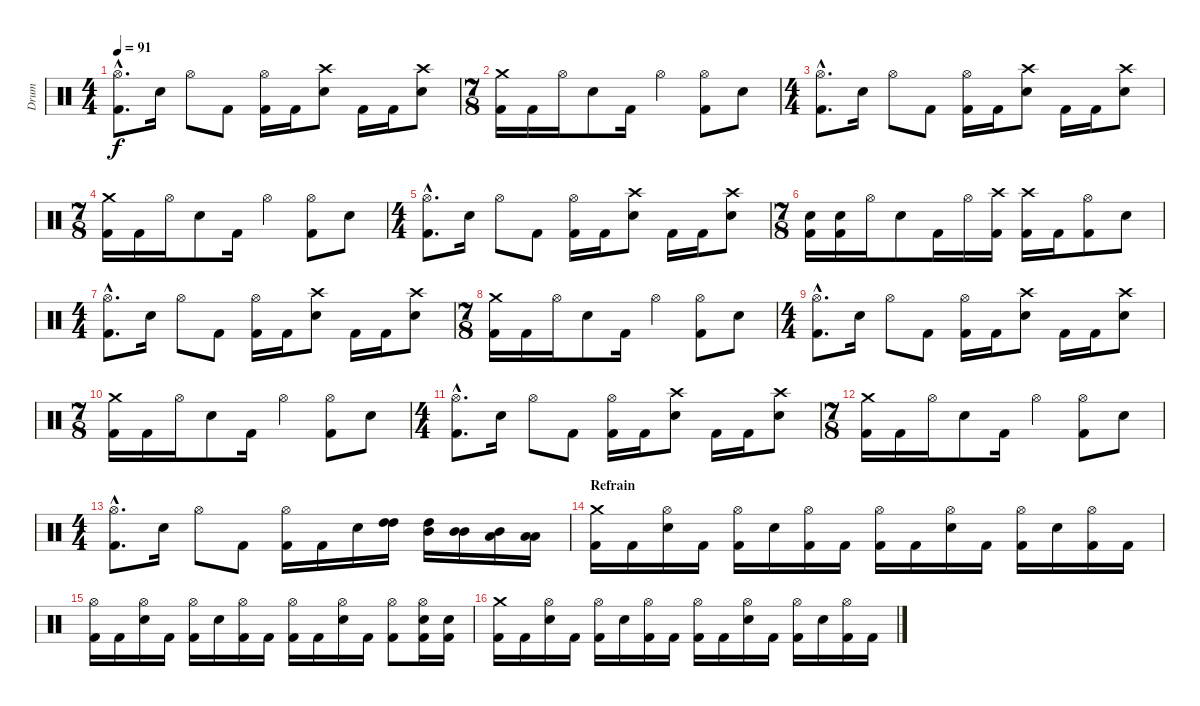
\track ("Drum" "Drum") {instrument percussion}
\staff {score}
\articulation defaults
\ts (4 4)
\tempo 91
\clef neutral
\ks c
("Hi-Hat (open)"{hac} "Kick (hit) 2"{hac}).8{d dy f} "Snare (hit) 2".16 "Hi-Hat (open)".8 "Kick (hit) 2".8 ("Hi-Hat (open)" "Kick (hit) 2").16 "Kick (hit) 2".16 ("Crash high (hit)" "Snare (hit) 2").8 "Kick (hit) 2".16 "Kick (hit) 2".16 ("Crash high (hit)" "Snare (hit) 2").8 |
\ts (7 8)
("Crash medium (hit)" "Kick (hit) 2").16 "Kick (hit) 2".16 "Hi-Hat (open)".16 "Snare (hit) 2".8 "Kick (hit) 2".16 "Hi-Hat (open)".4 ("Hi-Hat (open)" "Kick (hit) 2").8 "Snare (hit) 2".8 |
\ts (4 4)
("Hi-Hat (open)"{hac} "Kick (hit) 2"{hac}).8{d} "Snare (hit) 2".16 "Hi-Hat (open)".8 "Kick (hit) 2".8 ("Hi-Hat (open)" "Kick (hit) 2").16 "Kick (hit) 2".16 ("Crash high (hit)" "Snare (hit) 2").8 "Kick (hit) 2".16 "Kick (hit) 2".16 ("Crash high (hit)" "Snare (hit) 2").8 |
\ts (7 8)
("Crash medium (hit)" "Kick (hit) 2").16 "Kick (hit) 2".16 "Hi-Hat (open)".16 "Snare (hit) 2".8 "Kick (hit) 2".16 "Hi-Hat (open)".4 ("Hi-Hat (open)" "Kick (hit) 2").8 "Snare (hit) 2".8 |
\ts (4 4)
("Hi-Hat (open)"{hac} "Kick (hit) 2"{hac}).8{d} "Snare (hit) 2".16 "Hi-Hat (open)".8 "Kick (hit) 2".8 ("Hi-Hat (open)" "Kick (hit) 2").16 "Kick (hit) 2".16 ("Crash high (hit)" "Snare (hit) 2").8 "Kick (hit) 2".16 "Kick (hit) 2".16 ("Crash high (hit)" "Snare (hit) 2").8 |
\ts (7 8)
("Snare (hit) 2" "Kick (hit) 2").16 ("Snare (hit) 2" "Kick (hit) 2").16 "Hi-Hat (open)".16 "Snare (hit) 2".8 "Kick (hit) 2".16 "Hi-Hat (open)".16 ("Crash high (hit)" "Kick (hit) 2").16 ("Crash high (hit)" "Kick (hit) 2").16 "Kick (hit) 2".16 ("Hi-Hat (open)" "Kick (hit) 2").8 "Snare (hit) 2".8 |
\ts (4 4)
("Hi-Hat (open)"{hac} "Kick (hit) 2"{hac}).8{d} "Snare (hit) 2".16 "Hi-Hat (open)".8 "Kick (hit) 2".8 ("Hi-Hat (open)" "Kick (hit) 2").16 "Kick (hit) 2".16 ("Crash high (hit)" "Snare (hit) 2").8 "Kick (hit) 2".16 "Kick (hit) 2".16 ("Crash high (hit)" "Snare (hit) 2").8 |
\ts (7 8)
("Crash medium (hit)" "Kick (hit) 2").16 "Kick (hit) 2".16 "Hi-Hat (open)".16 "Snare (hit) 2".8 "Kick (hit) 2".16 "Hi-Hat (open)".4 ("Hi-Hat (open)" "Kick (hit) 2").8 "Snare (hit) 2".8 |
\ts (4 4)
("Hi-Hat (open)"{hac} "Kick (hit) 2"{hac}).8{d} "Snare (hit) 2".16 "Hi-Hat (open)".8 "Kick (hit) 2".8 ("Hi-Hat (open)" "Kick (hit) 2").16 "Kick (hit) 2".16 ("Crash high (hit)" "Snare (hit) 2").8 "Kick (hit) 2".16 "Kick (hit) 2".16 ("Crash high (hit)" "Snare (hit) 2").8 |
\ts (7 8)
("Crash medium (hit)" "Kick (hit) 2").16 "Kick (hit) 2".16 "Hi-Hat (open)".16 "Snare (hit) 2".8 "Kick (hit) 2".16 "Hi-Hat (open)".4 ("Hi-Hat (open)" "Kick (hit) 2").8 "Snare (hit) 2".8 |
\ts (4 4)
("Hi-Hat (open)"{hac} "Kick (hit) 2"{hac}).8{d} "Snare (hit) 2".16 "Hi-Hat (open)".8 "Kick (hit) 2".8 ("Hi-Hat (open)" "Kick (hit) 2").16 "Kick (hit) 2".16 ("Crash high (hit)" "Snare (hit) 2").8 "Kick (hit) 2".16 "Kick (hit) 2".16 ("Crash high (hit)" "Snare (hit) 2").8 |
\ts (7 8)
("Crash medium (hit)" "Kick (hit) 2").16 "Kick (hit) 2".16 "Hi-Hat (open)".16 "Snare (hit) 2".8 "Kick (hit) 2".16 "Hi-Hat (open)".4 ("Hi-Hat (open)" "Kick (hit) 2").8 "Snare (hit) 2".8 |
\ts (4 4)
("Hi-Hat (open)"{hac} "Kick (hit) 2"{hac}).8{d} "Snare (hit) 2".16 "Hi-Hat (open)".8 "Kick (hit) 2".8 ("Hi-Hat (open)" "Kick (hit) 2").16 "Kick (hit) 2".16 "Snare (hit) 2".16 ("High Tom (hit)" "High Tom (hit)").16 ("High Tom (hit)" "Mid Tom (hit)").16 ("Mid Tom (hit)" "Mid Tom (hit)").16 ("Mid Tom (hit)" "Low Tom (hit)").16 ("Low Tom (hit)" "Low Tom (hit)").16 |
\section ("" "Refrain")
("Crash medium (hit)" "Kick (hit) 2").16 "Kick (hit) 2".16 ("Hi-Hat (open)" "Snare (hit) 2").16 "Kick (hit) 2".16 ("Hi-Hat (open)" "Kick (hit) 2").16 "Snare (hit) 2".16 ("Hi-Hat (open)" "Kick (hit) 2").16 "Kick (hit) 2".16 ("Hi-Hat (open)" "Kick (hit) 2").16 "Kick (hit) 2".16 ("Hi-Hat (open)" "Snare (hit) 2").16 "Kick (hit) 2".16 ("Hi-Hat (open)" "Kick (hit) 2").16 "Snare (hit) 2".16 ("Hi-Hat (open)" "Kick (hit) 2").16 "Kick (hit) 2".16 |
("Hi-Hat (open)" "Kick (hit) 2").16 "Kick (hit) 2".16 ("Hi-Hat (open)" "Snare (hit) 2").16 "Kick (hit) 2".16 ("Hi-Hat (open)" "Kick (hit) 2").16 "Snare (hit) 2".16 ("Hi-Hat (open)" "Kick (hit) 2").16 "Kick (hit) 2".16 ("Hi-Hat (open)" "Kick (hit) 2").16 "Kick (hit) 2".16 ("Hi-Hat (open)" "Snare (hit) 2").16 "Kick (hit) 2".16 ("Hi-Hat (open)" "Kick (hit) 2").8 ("Hi-Hat (open)" "Snare (hit) 2" "Kick (hit) 2").16 ("Snare (hit) 2" "Kick (hit) 2").16 |
("Crash medium (hit)" "Kick (hit) 2").16 "Kick (hit) 2".16 ("Hi-Hat (open)" "Snare (hit) 2").16 "Kick (hit) 2".16 ("Hi-Hat (open)" "Kick (hit) 2").16 "Snare (hit) 2".16 ("Hi-Hat (open)" "Kick (hit) 2").16 "Kick (hit) 2".16 ("Hi-Hat (open)" "Kick (hit) 2").16 "Kick (hit) 2".16 ("Hi-Hat (open)" "Snare (hit) 2").16 "Kick (hit) 2".16 ("Hi-Hat (open)" "Kick (hit) 2").16 "Snare (hit) 2".16 ("Hi-Hat (open)" "Kick (hit) 2").16 "Kick (hit) 2".16
